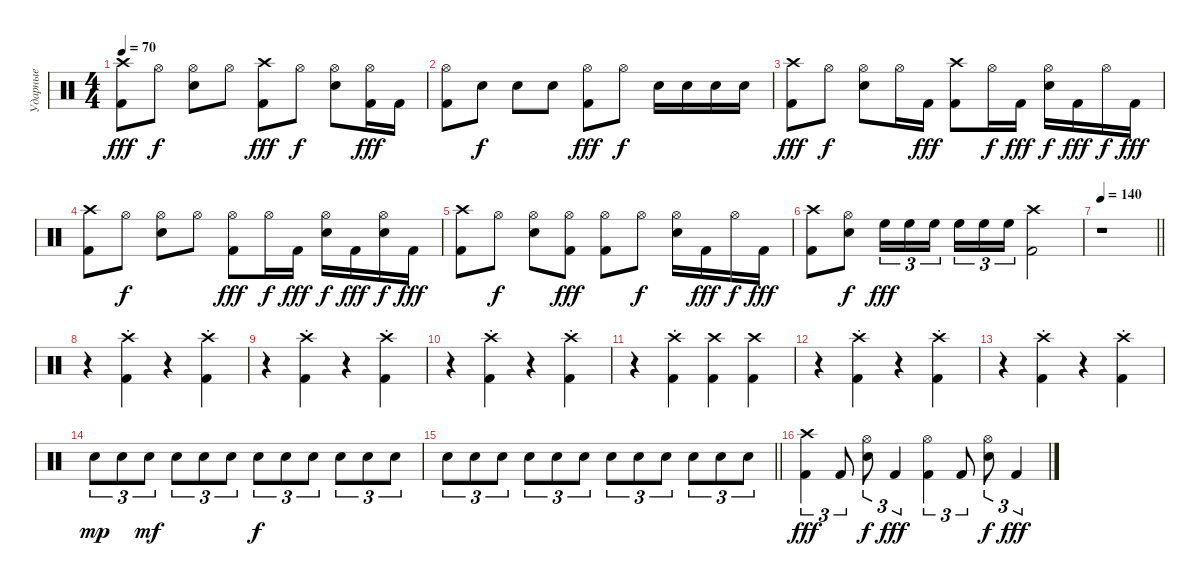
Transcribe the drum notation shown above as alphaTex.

\track ("Ударные" "Ударные") {instrument percussion}
\staff {score}
\articulation defaults
\ts (4 4)
\tempo 70
\clef neutral
\ks c
("Kick (hit) 2" "Crash high (hit)").8{dy fff} "Hi-Hat (open)".8{dy f} ("Snare (hit) 2" "Hi-Hat (open)").8 "Hi-Hat (open)".8 ("Kick (hit) 2" "Crash high (hit)").8{dy fff} "Hi-Hat (open)".8{dy f} ("Snare (hit) 2" "Hi-Hat (open)").8 ("Kick (hit) 2" "Hi-Hat (open)").16{dy fff} "Kick (hit) 2".16 |
("Kick (hit) 2" "Hi-Hat (open)").8 "Snare (hit) 2".8{dy f} "Snare (hit) 2".8 "Snare (hit) 2".8 ("Kick (hit) 2" "Hi-Hat (open)").8{dy fff} "Hi-Hat (open)".8{dy f} "Snare (hit) 2".16 "Snare (hit) 2".16 "Snare (hit) 2".16 "Snare (hit) 2".16 |
("Kick (hit) 2" "Crash high (hit)").8{dy fff} "Hi-Hat (open)".8{dy f} ("Snare (hit) 2" "Hi-Hat (open)").8 "Hi-Hat (open)".16 "Kick (hit) 2".16{dy fff} ("Kick (hit) 2" "Crash high (hit)").8 "Hi-Hat (open)".16{dy f} "Kick (hit) 2".16{dy fff} ("Snare (hit) 2" "Hi-Hat (open)").16{dy f} "Kick (hit) 2".16{dy fff} "Hi-Hat (open)".16{dy f} "Kick (hit) 2".16{dy fff} |
("Kick (hit) 2" "Crash high (hit)").8 "Hi-Hat (open)".8{dy f} ("Snare (hit) 2" "Hi-Hat (open)").8 "Hi-Hat (open)".8 ("Kick (hit) 2" "Hi-Hat (open)").8{dy fff} "Hi-Hat (open)".16{dy f} "Kick (hit) 2".16{dy fff} ("Snare (hit) 2" "Hi-Hat (open)").16{dy f} "Kick (hit) 2".16{dy fff} ("Snare (hit) 2" "Hi-Hat (open)").16{dy f} "Kick (hit) 2".16{dy fff} |
("Kick (hit) 2" "Crash high (hit)").8 "Hi-Hat (open)".8{dy f} ("Snare (hit) 2" "Hi-Hat (open)").8 ("Kick (hit) 2" "Hi-Hat (open)").8{dy fff} ("Kick (hit) 2" "Hi-Hat (open)").8 "Hi-Hat (open)".8{dy f} ("Snare (hit) 2" "Hi-Hat (open)").16 "Kick (hit) 2".16{dy fff} "Hi-Hat (open)".16{dy f} "Kick (hit) 2".16{dy fff} |
("Kick (hit) 2" "Crash high (hit)").8 ("Snare (hit) 2" "Hi-Hat (open)").8{dy f} "High Floor Tom (hit)".16{tu (3 2) dy fff} "High Floor Tom (hit)".16{tu (3 2)} "High Floor Tom (hit)".16{tu (3 2) beam splitsecondary} "High Floor Tom (hit)".16{tu (3 2)} "High Floor Tom (hit)".16{tu (3 2)} "High Floor Tom (hit)".16{tu (3 2)} ("Kick (hit) 2" "Crash high (hit)").2 |
\tempo 140
\barLineRight lightlight
r.1 |
r.4 ("Kick (hit) 2"{st} "Crash high (hit)"{st}).4 r.4 ("Kick (hit) 2"{st} "Crash high (hit)"{st}).4 |
r.4 ("Kick (hit) 2"{st} "Crash high (hit)"{st}).4 r.4 ("Kick (hit) 2"{st} "Crash high (hit)"{st}).4 |
r.4 ("Kick (hit) 2"{st} "Crash high (hit)"{st}).4 r.4 ("Kick (hit) 2"{st} "Crash high (hit)"{st}).4 |
r.4 ("Kick (hit) 2"{st} "Crash high (hit)"{st}).4 ("Kick (hit) 2" "Crash high (hit)").4 ("Kick (hit) 2" "Crash high (hit)").4 |
r.4 ("Kick (hit) 2"{st} "Crash high (hit)"{st}).4 r.4 ("Kick (hit) 2"{st} "Crash high (hit)"{st}).4 |
r.4 ("Kick (hit) 2"{st} "Crash high (hit)"{st}).4 r.4 ("Kick (hit) 2"{st} "Crash high (hit)"{st}).4 |
"Snare (hit) 2".8{tu (3 2) dy mp} "Snare (hit) 2".8{tu (3 2)} "Snare (hit) 2".8{tu (3 2) dy mf} "Snare (hit) 2".8{tu (3 2)} "Snare (hit) 2".8{tu (3 2)} "Snare (hit) 2".8{tu (3 2)} "Snare (hit) 2".8{tu (3 2) dy f} "Snare (hit) 2".8{tu (3 2)} "Snare (hit) 2".8{tu (3 2)} "Snare (hit) 2".8{tu (3 2)} "Snare (hit) 2".8{tu (3 2)} "Snare (hit) 2".8{tu (3 2)} |
\barLineRight lightlight "Snare (hit) 2".8{tu (3 2)} "Snare (hit) 2".8{tu (3 2)} "Snare (hit) 2".8{tu (3 2)} "Snare (hit) 2".8{tu (3 2)} "Snare (hit) 2".8{tu (3 2)} "Snare (hit) 2".8{tu (3 2)} "Snare (hit) 2".8{tu (3 2)} "Snare (hit) 2".8{tu (3 2)} "Snare (hit) 2".8{tu (3 2)} "Snare (hit) 2".8{tu (3 2)} "Snare (hit) 2".8{tu (3 2)} "Snare (hit) 2".8{tu (3 2)}
|
("Kick (hit) 2" "Crash high (hit)").4{tu (3 2) dy fff} "Kick (hit) 2".8{tu (3 2)} ("Snare (hit) 2" "Hi-Hat (open)").8{tu (3 2) dy f} "Kick (hit) 2".4{tu (3 2) dy fff} ("Kick (hit) 2" "Hi-Hat (open)").4{tu (3 2)} "Kick (hit) 2".8{tu (3 2)} ("Snare (hit) 2" "Hi-Hat (open)").8{tu (3 2) dy f} "Kick (hit) 2".4{tu (3 2) dy fff}
